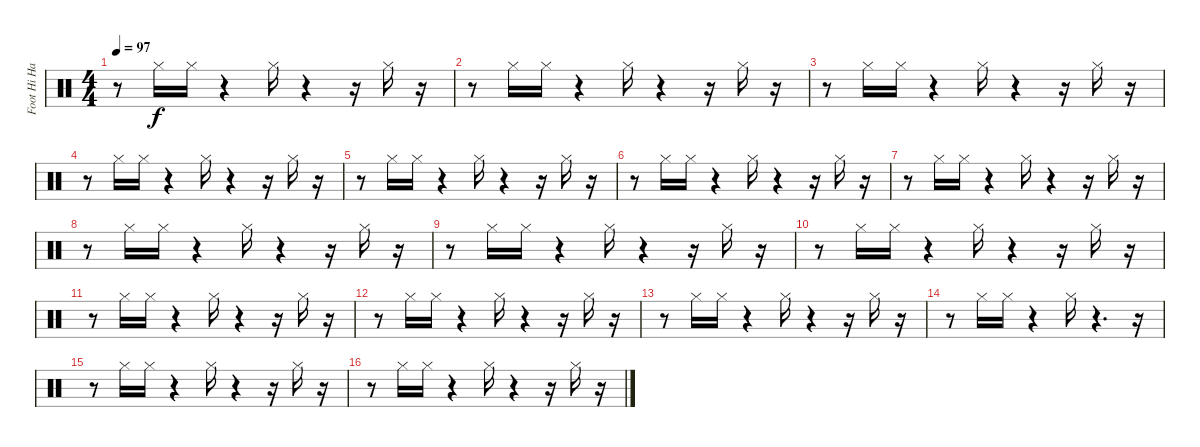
\track ("Foot Hi Hat" "Foot Hi Ha") {instrument percussion}
\staff {score}
\articulation defaults
\ts (4 4)
\tempo 97
\clef neutral
\ks c
r.8{dy f} "Hi-Hat (closed)".16 "Hi-Hat (closed)".16 r.4 "Hi-Hat (closed)".16 r.4 r.16 "Hi-Hat (closed)".16 r.16 |
r.8 "Hi-Hat (closed)".16 "Hi-Hat (closed)".16 r.4 "Hi-Hat (closed)".16 r.4 r.16 "Hi-Hat (closed)".16 r.16 |
r.8 "Hi-Hat (closed)".16 "Hi-Hat (closed)".16 r.4 "Hi-Hat (closed)".16 r.4 r.16 "Hi-Hat (closed)".16 r.16 |
r.8 "Hi-Hat (closed)".16 "Hi-Hat (closed)".16 r.4 "Hi-Hat (closed)".16 r.4 r.16 "Hi-Hat (closed)".16 r.16 |
r.8 "Hi-Hat (closed)".16 "Hi-Hat (closed)".16 r.4 "Hi-Hat (closed)".16 r.4 r.16 "Hi-Hat (closed)".16 r.16 |
r.8 "Hi-Hat (closed)".16 "Hi-Hat (closed)".16 r.4 "Hi-Hat (closed)".16 r.4 r.16 "Hi-Hat (closed)".16 r.16 |
r.8 "Hi-Hat (closed)".16 "Hi-Hat (closed)".16 r.4 "Hi-Hat (closed)".16 r.4 r.16 "Hi-Hat (closed)".16 r.16 |
r.8 "Hi-Hat (closed)".16 "Hi-Hat (closed)".16 r.4 "Hi-Hat (closed)".16 r.4 r.16 "Hi-Hat (closed)".16 r.16 |
r.8 "Hi-Hat (closed)".16 "Hi-Hat (closed)".16 r.4 "Hi-Hat (closed)".16 r.4 r.16 "Hi-Hat (closed)".16 r.16 |
r.8 "Hi-Hat (closed)".16 "Hi-Hat (closed)".16 r.4 "Hi-Hat (closed)".16 r.4 r.16 "Hi-Hat (closed)".16 r.16 |
r.8 "Hi-Hat (closed)".16 "Hi-Hat (closed)".16 r.4 "Hi-Hat (closed)".16 r.4 r.16 "Hi-Hat (closed)".16 r.16 |
r.8 "Hi-Hat (closed)".16 "Hi-Hat (closed)".16 r.4 "Hi-Hat (closed)".16 r.4 r.16 "Hi-Hat (closed)".16 r.16 |
r.8 "Hi-Hat (closed)".16 "Hi-Hat (closed)".16 r.4 "Hi-Hat (closed)".16 r.4 r.16 "Hi-Hat (closed)".16 r.16 |
r.8 "Hi-Hat (closed)".16 "Hi-Hat (closed)".16 r.4 "Hi-Hat (closed)".16 r.4{d} r.16 |
r.8 "Hi-Hat (closed)".16 "Hi-Hat (closed)".16 r.4 "Hi-Hat (closed)".16 r.4 r.16 "Hi-Hat (closed)".16 r.16 |
r.8 "Hi-Hat (closed)".16 "Hi-Hat (closed)".16 r.4 "Hi-Hat (closed)".16 r.4 r.16 "Hi-Hat (closed)".16 r.16
